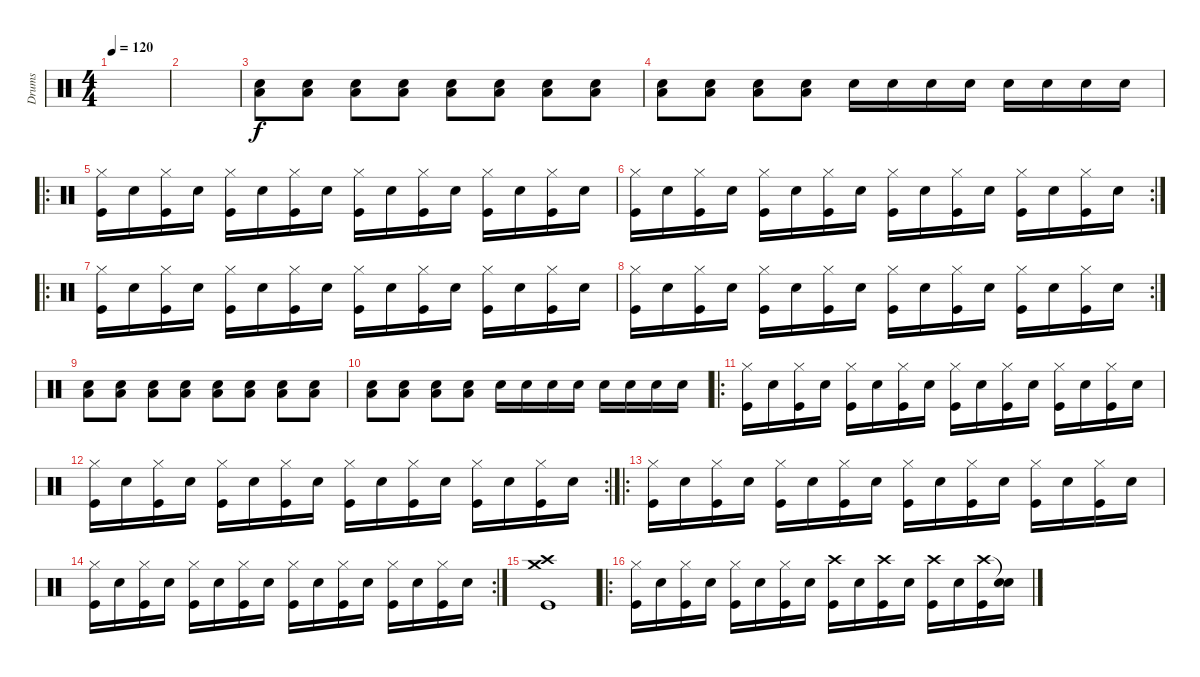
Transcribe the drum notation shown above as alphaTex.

\track ("Drums" "Drums") {instrument percussion}
\staff {score}
\articulation defaults
\ts (4 4)
\tempo 120
\clef neutral
\ks c
|
|
("Electric Snare (hit)" "Low Floor Tom (hit)").8 ("Electric Snare (hit)" "Low Floor Tom (hit)").8 ("Electric Snare (hit)" "Low Floor Tom (hit)").8 ("Electric Snare (hit)" "Low Floor Tom (hit)").8 ("Electric Snare (hit)" "Low Floor Tom (hit)").8 ("Electric Snare (hit)" "Low Floor Tom (hit)").8 ("Electric Snare (hit)" "Low Floor Tom (hit)").8 ("Electric Snare (hit)" "Low Floor Tom (hit)").8 |
("Electric Snare (hit)" "Low Floor Tom (hit)").8 ("Electric Snare (hit)" "Low Floor Tom (hit)").8 ("Electric Snare (hit)" "Low Floor Tom (hit)").8 ("Electric Snare (hit)" "Low Floor Tom (hit)").8 "Electric Snare (hit)".16 "Electric Snare (hit)".16 "Electric Snare (hit)".16 "Electric Snare (hit)".16 "Electric Snare (hit)".16 "Electric Snare (hit)".16 "Electric Snare (hit)".16 "Electric Snare (hit)".16 |
\ro
("Hi-Hat (closed)" "Kick (hit)").16 "Electric Snare (hit)".16 ("Hi-Hat (closed)" "Kick (hit)").16 "Electric Snare (hit)".16 ("Hi-Hat (closed)" "Kick (hit)").16 "Electric Snare (hit)".16 ("Hi-Hat (closed)" "Kick (hit)").16 "Electric Snare (hit)".16 ("Hi-Hat (closed)" "Kick (hit)").16 "Electric Snare (hit)".16 ("Hi-Hat (closed)" "Kick (hit)").16 "Electric Snare (hit)".16 ("Hi-Hat (closed)" "Kick (hit)").16 "Electric Snare (hit)".16 ("Hi-Hat (closed)" "Kick (hit)").16 "Electric Snare (hit)".16 |
\rc 2
("Hi-Hat (closed)" "Kick (hit)").16 "Electric Snare (hit)".16 ("Hi-Hat (closed)" "Kick (hit)").16 "Electric Snare (hit)".16 ("Hi-Hat (closed)" "Kick (hit)").16 "Electric Snare (hit)".16 ("Hi-Hat (closed)" "Kick (hit)").16 "Electric Snare (hit)".16 ("Hi-Hat (closed)" "Kick (hit)").16 "Electric Snare (hit)".16 ("Hi-Hat (closed)" "Kick (hit)").16 "Electric Snare (hit)".16 ("Hi-Hat (closed)" "Kick (hit)").16 "Electric Snare (hit)".16 ("Hi-Hat (closed)" "Kick (hit)").16 "Electric Snare (hit)".16 |
\ro
("Hi-Hat (closed)" "Kick (hit)").16 "Electric Snare (hit)".16 ("Hi-Hat (closed)" "Kick (hit)").16 "Electric Snare (hit)".16 ("Hi-Hat (closed)" "Kick (hit)").16 "Electric Snare (hit)".16 ("Hi-Hat (closed)" "Kick (hit)").16 "Electric Snare (hit)".16 ("Hi-Hat (closed)" "Kick (hit)").16 "Electric Snare (hit)".16 ("Hi-Hat (closed)" "Kick (hit)").16 "Electric Snare (hit)".16 ("Hi-Hat (closed)" "Kick (hit)").16 "Electric Snare (hit)".16 ("Hi-Hat (closed)" "Kick (hit)").16 "Electric Snare (hit)".16 |
\rc 2
("Hi-Hat (closed)" "Kick (hit)").16 "Electric Snare (hit)".16 ("Hi-Hat (closed)" "Kick (hit)").16 "Electric Snare (hit)".16 ("Hi-Hat (closed)" "Kick (hit)").16 "Electric Snare (hit)".16 ("Hi-Hat (closed)" "Kick (hit)").16 "Electric Snare (hit)".16 ("Hi-Hat (closed)" "Kick (hit)").16 "Electric Snare (hit)".16 ("Hi-Hat (closed)" "Kick (hit)").16 "Electric Snare (hit)".16 ("Hi-Hat (closed)" "Kick (hit)").16 "Electric Snare (hit)".16 ("Hi-Hat (closed)" "Kick (hit)").16 "Electric Snare (hit)".16 |
("Electric Snare (hit)" "Low Floor Tom (hit)").8 ("Electric Snare (hit)" "Low Floor Tom (hit)").8 ("Electric Snare (hit)" "Low Floor Tom (hit)").8 ("Electric Snare (hit)" "Low Floor Tom (hit)").8 ("Electric Snare (hit)" "Low Floor Tom (hit)").8 ("Electric Snare (hit)" "Low Floor Tom (hit)").8 ("Electric Snare (hit)" "Low Floor Tom (hit)").8 ("Electric Snare (hit)" "Low Floor Tom (hit)").8 |
("Electric Snare (hit)" "Low Floor Tom (hit)").8 ("Electric Snare (hit)" "Low Floor Tom (hit)").8 ("Electric Snare (hit)" "Low Floor Tom (hit)").8 ("Electric Snare (hit)" "Low Floor Tom (hit)").8 "Electric Snare (hit)".16 "Electric Snare (hit)".16 "Electric Snare (hit)".16 "Electric Snare (hit)".16 "Electric Snare (hit)".16 "Electric Snare (hit)".16 "Electric Snare (hit)".16 "Electric Snare (hit)".16 |
\ro
("Hi-Hat (closed)" "Kick (hit)").16 "Electric Snare (hit)".16 ("Hi-Hat (closed)" "Kick (hit)").16 "Electric Snare (hit)".16 ("Hi-Hat (closed)" "Kick (hit)").16 "Electric Snare (hit)".16 ("Hi-Hat (closed)" "Kick (hit)").16 "Electric Snare (hit)".16 ("Hi-Hat (closed)" "Kick (hit)").16 "Electric Snare (hit)".16 ("Hi-Hat (closed)" "Kick (hit)").16 "Electric Snare (hit)".16 ("Hi-Hat (closed)" "Kick (hit)").16 "Electric Snare (hit)".16 ("Hi-Hat (closed)" "Kick (hit)").16 "Electric Snare (hit)".16 |
\rc 2
("Hi-Hat (closed)" "Kick (hit)").16 "Electric Snare (hit)".16 ("Hi-Hat (closed)" "Kick (hit)").16 "Electric Snare (hit)".16 ("Hi-Hat (closed)" "Kick (hit)").16 "Electric Snare (hit)".16 ("Hi-Hat (closed)" "Kick (hit)").16 "Electric Snare (hit)".16 ("Hi-Hat (closed)" "Kick (hit)").16 "Electric Snare (hit)".16 ("Hi-Hat (closed)" "Kick (hit)").16 "Electric Snare (hit)".16 ("Hi-Hat (closed)" "Kick (hit)").16 "Electric Snare (hit)".16 ("Hi-Hat (closed)" "Kick (hit)").16 "Electric Snare (hit)".16 |
\ro
("Hi-Hat (closed)" "Kick (hit)").16 "Electric Snare (hit)".16 ("Hi-Hat (closed)" "Kick (hit)").16 "Electric Snare (hit)".16 ("Hi-Hat (closed)" "Kick (hit)").16 "Electric Snare (hit)".16 ("Hi-Hat (closed)" "Kick (hit)").16 "Electric Snare (hit)".16 ("Hi-Hat (closed)" "Kick (hit)").16 "Electric Snare (hit)".16 ("Hi-Hat (closed)" "Kick (hit)").16 "Electric Snare (hit)".16 ("Hi-Hat (closed)" "Kick (hit)").16 "Electric Snare (hit)".16 ("Hi-Hat (closed)" "Kick (hit)").16 "Electric Snare (hit)".16 |
\rc 2
("Hi-Hat (closed)" "Kick (hit)").16 "Electric Snare (hit)".16 ("Hi-Hat (closed)" "Kick (hit)").16 "Electric Snare (hit)".16 ("Hi-Hat (closed)" "Kick (hit)").16 "Electric Snare (hit)".16 ("Hi-Hat (closed)" "Kick (hit)").16 "Electric Snare (hit)".16 ("Hi-Hat (closed)" "Kick (hit)").16 "Electric Snare (hit)".16 ("Hi-Hat (closed)" "Kick (hit)").16 "Electric Snare (hit)".16 ("Hi-Hat (closed)" "Kick (hit)").16 "Electric Snare (hit)".16 ("Hi-Hat (closed)" "Kick (hit)").16 "Electric Snare (hit)".16 |
("Crash high (hit)" "Crash medium (hit)" "Kick (hit)").1 |
\ro
("Hi-Hat (closed)" "Kick (hit)").16 "Electric Snare (hit)".16 ("Hi-Hat (closed)" "Kick (hit)").16 "Electric Snare (hit)".16 ("Hi-Hat (closed)" "Kick (hit)").16 "Electric Snare (hit)".16 ("Hi-Hat (closed)" "Kick (hit)").16 "Electric Snare (hit)".16 ("Crash high (hit)" "Kick (hit)").16 "Electric Snare (hit)".16 ("Crash high (hit)" "Kick (hit)").16 "Electric Snare (hit)".16 ("Crash high (hit)" "Kick (hit)").16 "Electric Snare (hit)".16 ("Crash high (hit)" "Kick (hit)").16 ("Snare (hit)"{t} "Electric Snare (hit)").16
